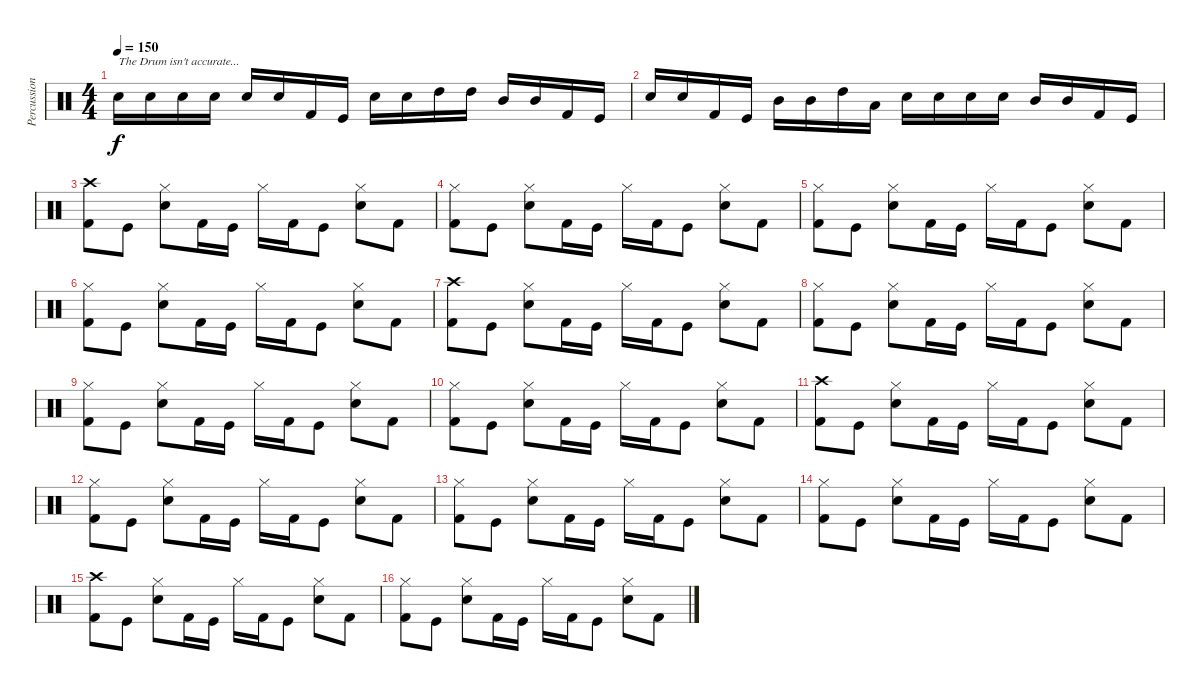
\track ("Percussion" "Percussion") {instrument percussion}
\staff {score}
\articulation defaults
\ts (4 4)
\tempo 150
\clef neutral
\ks c "Snare (hit) 2".16{txt "The Drum isn't accurate..." dy f} "Snare (hit) 2".16 "Snare (hit) 2".16 "Snare (hit) 2".16 "Snare (hit) 2".16 "Snare (hit) 2".16 "Kick (hit) 2".16 "Kick (hit)".16 "Snare (hit) 2".16 "Snare (hit) 2".16 "High Tom (hit)".16 "High Tom (hit)".16 "Mid Tom (hit)".16 "Mid Tom (hit)".16 "Kick (hit) 2".16 "Kick (hit)".16
|
"Snare (hit) 2".16 "Snare (hit) 2".16 "Kick (hit) 2".16 "Kick (hit)".16 "Mid Tom (hit)".16 "Mid Tom (hit)".16 "High Tom (hit)".16 "Low Tom (hit)".16 "Snare (hit) 2".16 "Snare (hit) 2".16 "Snare (hit) 2".16 "Snare (hit) 2".16 "Mid Tom (hit)".16 "Mid Tom (hit)".16 "Kick (hit) 2".16 "Kick (hit)".16 |
("Crash high (hit)" "Kick (hit) 2").8 "Kick (hit)".8 ("Hi-Hat (closed)" "Snare (hit) 2").8 "Kick (hit) 2".16 "Kick (hit)".16 "Hi-Hat (closed)".16 "Kick (hit) 2".16 "Kick (hit)".8 ("Hi-Hat (closed)" "Snare (hit) 2").8 "Kick (hit) 2".8 |
("Hi-Hat (closed)" "Kick (hit) 2").8 "Kick (hit)".8 ("Hi-Hat (closed)" "Snare (hit) 2").8 "Kick (hit) 2".16 "Kick (hit)".16 "Hi-Hat (closed)".16 "Kick (hit) 2".16 "Kick (hit)".8 ("Hi-Hat (closed)" "Snare (hit) 2").8 "Kick (hit) 2".8 |
("Hi-Hat (closed)" "Kick (hit) 2").8 "Kick (hit)".8 ("Hi-Hat (closed)" "Snare (hit) 2").8 "Kick (hit) 2".16 "Kick (hit)".16 "Hi-Hat (closed)".16 "Kick (hit) 2".16 "Kick (hit)".8 ("Hi-Hat (closed)" "Snare (hit) 2").8 "Kick (hit) 2".8 |
("Hi-Hat (closed)" "Kick (hit) 2").8 "Kick (hit)".8 ("Hi-Hat (closed)" "Snare (hit) 2").8 "Kick (hit) 2".16 "Kick (hit)".16 "Hi-Hat (closed)".16 "Kick (hit) 2".16 "Kick (hit)".8 ("Hi-Hat (closed)" "Snare (hit) 2").8 "Kick (hit) 2".8 |
("Crash high (hit)" "Kick (hit) 2").8 "Kick (hit)".8 ("Hi-Hat (closed)" "Snare (hit) 2").8 "Kick (hit) 2".16 "Kick (hit)".16 "Hi-Hat (closed)".16 "Kick (hit) 2".16 "Kick (hit)".8 ("Hi-Hat (closed)" "Snare (hit) 2").8 "Kick (hit) 2".8 |
("Hi-Hat (closed)" "Kick (hit) 2").8 "Kick (hit)".8 ("Hi-Hat (closed)" "Snare (hit) 2").8 "Kick (hit) 2".16 "Kick (hit)".16 "Hi-Hat (closed)".16 "Kick (hit) 2".16 "Kick (hit)".8 ("Hi-Hat (closed)" "Snare (hit) 2").8 "Kick (hit) 2".8 |
("Hi-Hat (closed)" "Kick (hit) 2").8 "Kick (hit)".8 ("Hi-Hat (closed)" "Snare (hit) 2").8 "Kick (hit) 2".16 "Kick (hit)".16 "Hi-Hat (closed)".16 "Kick (hit) 2".16 "Kick (hit)".8 ("Hi-Hat (closed)" "Snare (hit) 2").8 "Kick (hit) 2".8 |
("Hi-Hat (closed)" "Kick (hit) 2").8 "Kick (hit)".8 ("Hi-Hat (closed)" "Snare (hit) 2").8 "Kick (hit) 2".16 "Kick (hit)".16 "Hi-Hat (closed)".16 "Kick (hit) 2".16 "Kick (hit)".8 ("Hi-Hat (closed)" "Snare (hit) 2").8 "Kick (hit) 2".8 |
("Crash high (hit)" "Kick (hit) 2").8 "Kick (hit)".8 ("Hi-Hat (closed)" "Snare (hit) 2").8 "Kick (hit) 2".16 "Kick (hit)".16 "Hi-Hat (closed)".16 "Kick (hit) 2".16 "Kick (hit)".8 ("Hi-Hat (closed)" "Snare (hit) 2").8 "Kick (hit) 2".8 |
("Hi-Hat (closed)" "Kick (hit) 2").8 "Kick (hit)".8 ("Hi-Hat (closed)" "Snare (hit) 2").8 "Kick (hit) 2".16 "Kick (hit)".16 "Hi-Hat (closed)".16 "Kick (hit) 2".16 "Kick (hit)".8 ("Hi-Hat (closed)" "Snare (hit) 2").8 "Kick (hit) 2".8 |
("Hi-Hat (closed)" "Kick (hit) 2").8 "Kick (hit)".8 ("Hi-Hat (closed)" "Snare (hit) 2").8 "Kick (hit) 2".16 "Kick (hit)".16 "Hi-Hat (closed)".16 "Kick (hit) 2".16 "Kick (hit)".8 ("Hi-Hat (closed)" "Snare (hit) 2").8 "Kick (hit) 2".8 |
("Hi-Hat (closed)" "Kick (hit) 2").8 "Kick (hit)".8 ("Hi-Hat (closed)" "Snare (hit) 2").8 "Kick (hit) 2".16 "Kick (hit)".16 "Hi-Hat (closed)".16 "Kick (hit) 2".16 "Kick (hit)".8 ("Hi-Hat (closed)" "Snare (hit) 2").8 "Kick (hit) 2".8 |
("Crash high (hit)" "Kick (hit) 2").8 "Kick (hit)".8 ("Hi-Hat (closed)" "Snare (hit) 2").8 "Kick (hit) 2".16 "Kick (hit)".16 "Hi-Hat (closed)".16 "Kick (hit) 2".16 "Kick (hit)".8 ("Hi-Hat (closed)" "Snare (hit) 2").8 "Kick (hit) 2".8 |
("Hi-Hat (closed)" "Kick (hit) 2").8 "Kick (hit)".8 ("Hi-Hat (closed)" "Snare (hit) 2").8 "Kick (hit) 2".16 "Kick (hit)".16 "Hi-Hat (closed)".16 "Kick (hit) 2".16 "Kick (hit)".8 ("Hi-Hat (closed)" "Snare (hit) 2").8 "Kick (hit) 2".8
